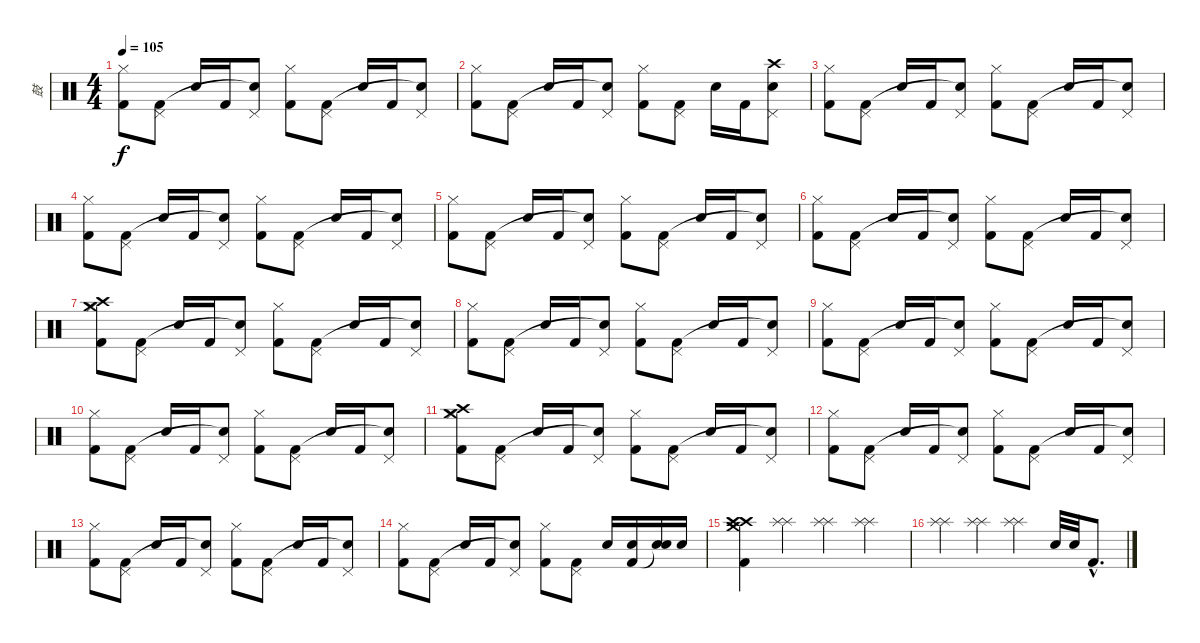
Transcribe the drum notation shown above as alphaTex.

\track ("鼓" "鼓") {instrument percussion}
\staff {score}
\articulation defaults
\ts (4 4)
\tempo 105
\clef neutral
\ks c
("Hi-Hat (closed)" "Kick (hit) 2").8{dy f} ("Pedal Hi-Hat (hit)" "Kick (hit) 2").8 "Electric Snare (hit)".16 "Kick (hit) 2".16 ("Pedal Hi-Hat (hit)" "Snare (hit)"{t}).8 ("Hi-Hat (closed)" "Kick (hit) 2").8 ("Pedal Hi-Hat (hit)" "Kick (hit) 2").8 "Electric Snare (hit)".16 "Kick (hit) 2".16 ("Pedal Hi-Hat (hit)" "Snare (hit)"{t}).8 |
("Hi-Hat (closed)" "Kick (hit) 2").8 ("Pedal Hi-Hat (hit)" "Kick (hit) 2").8 "Electric Snare (hit)".16 "Kick (hit) 2".16 ("Pedal Hi-Hat (hit)" "Snare (hit)"{t}).8 ("Hi-Hat (closed)" "Kick (hit) 2").8 ("Pedal Hi-Hat (hit)" "Kick (hit) 2").8 "Electric Snare (hit)".16 "Kick (hit) 2".16 ("Pedal Hi-Hat (hit)" "Crash high (hit)" "Snare (hit)"{t}).8 |
("Hi-Hat (closed)" "Kick (hit) 2").8 ("Pedal Hi-Hat (hit)" "Kick (hit) 2").8 "Electric Snare (hit)".16 "Kick (hit) 2".16 ("Pedal Hi-Hat (hit)" "Snare (hit)"{t}).8 ("Hi-Hat (closed)" "Kick (hit) 2").8 ("Pedal Hi-Hat (hit)" "Kick (hit) 2").8 "Electric Snare (hit)".16 "Kick (hit) 2".16 ("Pedal Hi-Hat (hit)" "Snare (hit)"{t}).8 |
("Hi-Hat (closed)" "Kick (hit) 2").8 ("Pedal Hi-Hat (hit)" "Kick (hit) 2").8 "Electric Snare (hit)".16 "Kick (hit) 2".16 ("Pedal Hi-Hat (hit)" "Snare (hit)"{t}).8 ("Hi-Hat (closed)" "Kick (hit) 2").8 ("Pedal Hi-Hat (hit)" "Kick (hit) 2").8 "Electric Snare (hit)".16 "Kick (hit) 2".16 ("Pedal Hi-Hat (hit)" "Snare (hit)"{t}).8 |
("Hi-Hat (closed)" "Kick (hit) 2").8 ("Pedal Hi-Hat (hit)" "Kick (hit) 2").8 "Electric Snare (hit)".16 "Kick (hit) 2".16 ("Pedal Hi-Hat (hit)" "Snare (hit)"{t}).8 ("Hi-Hat (closed)" "Kick (hit) 2").8 ("Pedal Hi-Hat (hit)" "Kick (hit) 2").8 "Electric Snare (hit)".16 "Kick (hit) 2".16 ("Pedal Hi-Hat (hit)" "Snare (hit)"{t}).8 |
("Hi-Hat (closed)" "Kick (hit) 2").8 ("Pedal Hi-Hat (hit)" "Kick (hit) 2").8 "Electric Snare (hit)".16 "Kick (hit) 2".16 ("Pedal Hi-Hat (hit)" "Snare (hit)"{t}).8 ("Hi-Hat (closed)" "Kick (hit) 2").8 ("Pedal Hi-Hat (hit)" "Kick (hit) 2").8 "Electric Snare (hit)".16 "Kick (hit) 2".16 ("Pedal Hi-Hat (hit)" "Snare (hit)"{t}).8 |
("Hi-Hat (closed)" "Crash high (hit)" "Crash medium (hit)" "Kick (hit) 2").8 ("Pedal Hi-Hat (hit)" "Kick (hit) 2").8 "Electric Snare (hit)".16 "Kick (hit) 2".16 ("Pedal Hi-Hat (hit)" "Snare (hit)"{t}).8 ("Hi-Hat (closed)" "Kick (hit) 2").8 ("Pedal Hi-Hat (hit)" "Kick (hit) 2").8 "Electric Snare (hit)".16 "Kick (hit) 2".16 ("Pedal Hi-Hat (hit)" "Snare (hit)"{t}).8 |
("Hi-Hat (closed)" "Kick (hit) 2").8 ("Pedal Hi-Hat (hit)" "Kick (hit) 2").8 "Electric Snare (hit)".16 "Kick (hit) 2".16 ("Pedal Hi-Hat (hit)" "Snare (hit)"{t}).8 ("Hi-Hat (closed)" "Kick (hit) 2").8 ("Pedal Hi-Hat (hit)" "Kick (hit) 2").8 "Electric Snare (hit)".16 "Kick (hit) 2".16 ("Pedal Hi-Hat (hit)" "Snare (hit)"{t}).8 |
("Hi-Hat (closed)" "Kick (hit) 2").8 ("Pedal Hi-Hat (hit)" "Kick (hit) 2").8 "Electric Snare (hit)".16 "Kick (hit) 2".16 ("Pedal Hi-Hat (hit)" "Snare (hit)"{t}).8 ("Hi-Hat (closed)" "Kick (hit) 2").8 ("Pedal Hi-Hat (hit)" "Kick (hit) 2").8 "Electric Snare (hit)".16 "Kick (hit) 2".16 ("Pedal Hi-Hat (hit)" "Snare (hit)"{t}).8 |
("Hi-Hat (closed)" "Kick (hit) 2").8 ("Pedal Hi-Hat (hit)" "Kick (hit) 2").8 "Electric Snare (hit)".16 "Kick (hit) 2".16 ("Pedal Hi-Hat (hit)" "Snare (hit)"{t}).8 ("Hi-Hat (closed)" "Kick (hit) 2").8 ("Pedal Hi-Hat (hit)" "Kick (hit) 2").8 "Electric Snare (hit)".16 "Kick (hit) 2".16 ("Pedal Hi-Hat (hit)" "Snare (hit)"{t}).8 |
("Hi-Hat (closed)" "Crash medium (hit)" "Crash high (hit)" "Kick (hit) 2").8 ("Pedal Hi-Hat (hit)" "Kick (hit) 2").8 "Electric Snare (hit)".16 "Kick (hit) 2".16 ("Pedal Hi-Hat (hit)" "Snare (hit)"{t}).8 ("Hi-Hat (closed)" "Kick (hit) 2").8 ("Pedal Hi-Hat (hit)" "Kick (hit) 2").8 "Electric Snare (hit)".16 "Kick (hit) 2".16 ("Pedal Hi-Hat (hit)" "Snare (hit)"{t}).8 |
("Hi-Hat (closed)" "Kick (hit) 2").8 ("Pedal Hi-Hat (hit)" "Kick (hit) 2").8 "Electric Snare (hit)".16 "Kick (hit) 2".16 ("Pedal Hi-Hat (hit)" "Snare (hit)"{t}).8 ("Hi-Hat (closed)" "Kick (hit) 2").8 ("Pedal Hi-Hat (hit)" "Kick (hit) 2").8 "Electric Snare (hit)".16 "Kick (hit) 2".16 ("Pedal Hi-Hat (hit)" "Snare (hit)"{t}).8 |
("Hi-Hat (closed)" "Kick (hit) 2").8 ("Pedal Hi-Hat (hit)" "Kick (hit) 2").8 "Electric Snare (hit)".16 "Kick (hit) 2".16 ("Pedal Hi-Hat (hit)" "Snare (hit)"{t}).8 ("Hi-Hat (closed)" "Kick (hit) 2").8 ("Pedal Hi-Hat (hit)" "Kick (hit) 2").8 "Electric Snare (hit)".16 "Kick (hit) 2".16 ("Pedal Hi-Hat (hit)" "Snare (hit)"{t}).8 |
("Hi-Hat (closed)" "Kick (hit) 2").8 ("Pedal Hi-Hat (hit)" "Kick (hit) 2").8 "Electric Snare (hit)".16 "Kick (hit) 2".16 ("Pedal Hi-Hat (hit)" "Snare (hit)"{t}).8 ("Hi-Hat (closed)" "Kick (hit) 2").8 ("Pedal Hi-Hat (hit)" "Kick (hit) 2").8 "Electric Snare (hit)".16 ("Electric Snare (hit)" "Kick (hit) 2").16 ("Electric Snare (hit)" "Snare (hit)"{t}).16 "Electric Snare (hit)".16 |
("Crash high (hit)" "Crash medium (hit)" "Crash high (hit)" "Kick (hit) 2").4 ("Splash (hit)" "Splash (hit)").4 ("Splash (hit)" "Splash (hit)").4 ("Splash (hit)" "Splash (hit)").4 |
("Splash (hit)" "Splash (hit)").4 ("Splash (hit)" "Splash (hit)").4 ("Splash (hit)" "Splash (hit)").4 "Electric Snare (hit)".32 "Electric Snare (hit)".32 "Kick (hit) 2"{hac}.8{d}
